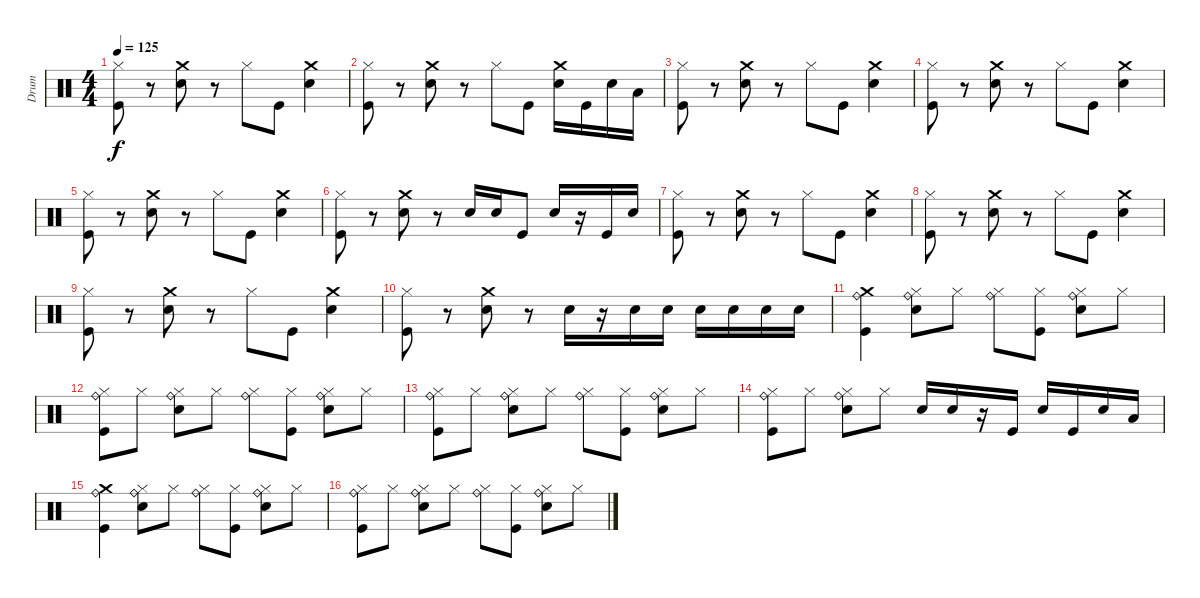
\track ("Drum" "Drum") {instrument percussion}
\staff {score}
\articulation defaults
\ts (4 4)
\tempo 125
\clef neutral
\ks c
("Kick (hit)" "Hi-Hat (closed)").8{dy f} r.8 ("Electric Snare (hit)" "Crash medium (hit)").8 r.8 "Hi-Hat (closed)".8 "Kick (hit)".8 ("Electric Snare (hit)" "Crash medium (hit)").4 |
("Kick (hit)" "Hi-Hat (closed)").8 r.8 ("Electric Snare (hit)" "Crash medium (hit)").8 r.8 "Hi-Hat (closed)".8 "Kick (hit)".8 ("Electric Snare (hit)" "Crash medium (hit)").16 "Kick (hit)".16 "Electric Snare (hit)".16 "Low Floor Tom (hit)".16 |
("Kick (hit)" "Hi-Hat (closed)").8 r.8 ("Electric Snare (hit)" "Crash medium (hit)").8 r.8 "Hi-Hat (closed)".8 "Kick (hit)".8 ("Electric Snare (hit)" "Crash medium (hit)").4 |
("Kick (hit)" "Hi-Hat (closed)").8 r.8 ("Electric Snare (hit)" "Crash medium (hit)").8 r.8 "Hi-Hat (closed)".8 "Kick (hit)".8 ("Electric Snare (hit)" "Crash medium (hit)").4 |
("Kick (hit)" "Hi-Hat (closed)").8 r.8 ("Electric Snare (hit)" "Crash medium (hit)").8 r.8 "Hi-Hat (closed)".8 "Kick (hit)".8 ("Electric Snare (hit)" "Crash medium (hit)").4 |
("Kick (hit)" "Hi-Hat (closed)").8 r.8 ("Electric Snare (hit)" "Crash medium (hit)").8 r.8 "Electric Snare (hit)".16 "Electric Snare (hit)".16 "Kick (hit)".8 "Electric Snare (hit)".16 r.16 "Kick (hit)".16 "Electric Snare (hit)".16 |
("Kick (hit)" "Hi-Hat (closed)").8 r.8 ("Electric Snare (hit)" "Crash medium (hit)").8 r.8 "Hi-Hat (closed)".8 "Kick (hit)".8 ("Electric Snare (hit)" "Crash medium (hit)").4 |
("Kick (hit)" "Hi-Hat (closed)").8 r.8 ("Electric Snare (hit)" "Crash medium (hit)").8 r.8 "Hi-Hat (closed)".8 "Kick (hit)".8 ("Electric Snare (hit)" "Crash medium (hit)").4 |
("Kick (hit)" "Hi-Hat (closed)").8 r.8 ("Electric Snare (hit)" "Crash medium (hit)").8 r.8 "Hi-Hat (closed)".8 "Kick (hit)".8 ("Electric Snare (hit)" "Crash medium (hit)").4 |
("Kick (hit)" "Hi-Hat (closed)").8 r.8 ("Electric Snare (hit)" "Crash medium (hit)").8 r.8 "Electric Snare (hit)".16 r.16 "Electric Snare (hit)".16 "Electric Snare (hit)".16 "Electric Snare (hit)".16 "Electric Snare (hit)".16 "Electric Snare (hit)".16 "Electric Snare (hit)".16 |
("Kick (hit)" "Crash medium (hit)" "Ride (bell)").4 ("Electric Snare (hit)" "Hi-Hat (closed)" "Ride (bell)").8 "Hi-Hat (closed)".8 ("Hi-Hat (closed)" "Ride (bell)").8 ("Kick (hit)" "Hi-Hat (closed)").8 ("Electric Snare (hit)" "Hi-Hat (closed)" "Ride (bell)").8 "Hi-Hat (closed)".8 |
("Kick (hit)" "Hi-Hat (closed)" "Ride (bell)").8 "Hi-Hat (closed)".8 ("Electric Snare (hit)" "Hi-Hat (closed)" "Ride (bell)").8 "Hi-Hat (closed)".8 ("Hi-Hat (closed)" "Ride (bell)").8 ("Kick (hit)" "Hi-Hat (closed)").8 ("Electric Snare (hit)" "Hi-Hat (closed)" "Ride (bell)").8 "Hi-Hat (closed)".8 |
("Kick (hit)" "Hi-Hat (closed)" "Ride (bell)").8 "Hi-Hat (closed)".8 ("Electric Snare (hit)" "Hi-Hat (closed)" "Ride (bell)").8 "Hi-Hat (closed)".8 ("Hi-Hat (closed)" "Ride (bell)").8 ("Kick (hit)" "Hi-Hat (closed)").8 ("Electric Snare (hit)" "Hi-Hat (closed)" "Ride (bell)").8 "Hi-Hat (closed)".8 |
("Kick (hit)" "Hi-Hat (closed)" "Ride (bell)").8 "Hi-Hat (closed)".8 ("Electric Snare (hit)" "Hi-Hat (closed)" "Ride (bell)").8 "Hi-Hat (closed)".8 "Electric Snare (hit)".16 "Electric Snare (hit)".16 r.16 "Kick (hit)".16 "Electric Snare (hit)".16 "Kick (hit)".16 "Electric Snare (hit)".16 "Low Tom (hit)".16 |
("Kick (hit)" "Crash medium (hit)" "Ride (bell)").4 ("Electric Snare (hit)" "Hi-Hat (closed)" "Ride (bell)").8 "Hi-Hat (closed)".8 ("Hi-Hat (closed)" "Ride (bell)").8 ("Kick (hit)" "Hi-Hat (closed)").8 ("Electric Snare (hit)" "Hi-Hat (closed)" "Ride (bell)").8 "Hi-Hat (closed)".8 |
("Kick (hit)" "Hi-Hat (closed)" "Ride (bell)").8 "Hi-Hat (closed)".8 ("Electric Snare (hit)" "Hi-Hat (closed)" "Ride (bell)").8 "Hi-Hat (closed)".8 ("Hi-Hat (closed)" "Ride (bell)").8 ("Kick (hit)" "Hi-Hat (closed)").8 ("Electric Snare (hit)" "Hi-Hat (closed)" "Ride (bell)").8 "Hi-Hat (closed)".8
